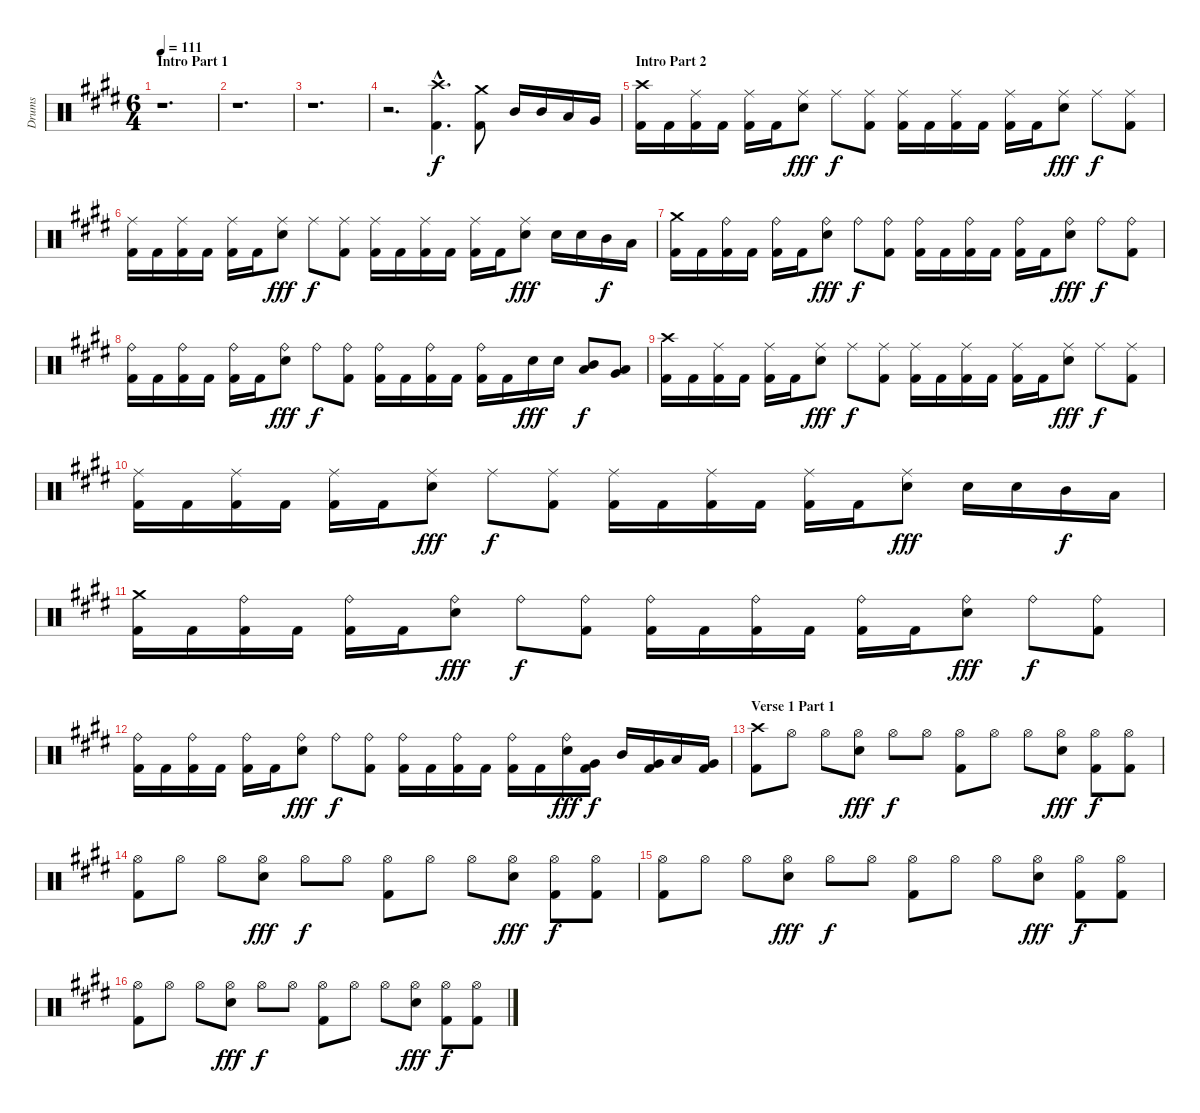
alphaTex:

\track ("Drums" "Drums") {instrument percussion}
\staff {score}
\articulation defaults
\ts (6 4)
\section ("" "Intro Part 1")
\tempo 111
\clef neutral
\ks c#minor
r.1{d dy f} |
r.1{d} |
r.1{d} |
r.2{d} ("Crash high (hit)"{hac} "Kick (hit) 2"{hac}).4{d} ("Crash medium (hit)" "Kick (hit) 2").8 "Mid Tom (hit)".16 "Mid Tom (hit)".16 "Low Tom (hit)".16 "Very Low Tom (hit)".16 |
\section ("" "Intro Part 2")
("Crash high (hit)" "Kick (hit) 2").16 "Kick (hit) 2".16 ("Ride (middle)" "Kick (hit) 2").16 "Kick (hit) 2".16 ("Ride (middle)" "Kick (hit) 2").16 "Kick (hit) 2".16 ("Ride (middle)" "Snare (hit) 2").8{dy fff} "Ride (middle)".8{dy f} ("Ride (middle)" "Kick (hit) 2").8 ("Ride (middle)" "Kick (hit) 2").16 "Kick (hit) 2".16 ("Ride (middle)" "Kick (hit) 2").16 "Kick (hit) 2".16 ("Ride (middle)" "Kick (hit) 2").16 "Kick (hit) 2".16 ("Ride (middle)" "Snare (hit) 2").8{dy fff} "Ride (middle)".8{dy f} ("Ride (middle)" "Kick (hit) 2").8 |
("Ride (middle)" "Kick (hit) 2").16 "Kick (hit) 2".16 ("Ride (middle)" "Kick (hit) 2").16 "Kick (hit) 2".16 ("Ride (middle)" "Kick (hit) 2").16 "Kick (hit) 2".16 ("Ride (middle)" "Snare (hit) 2").8{dy fff} "Ride (middle)".8{dy f} ("Ride (middle)" "Kick (hit) 2").8 ("Ride (middle)" "Kick (hit) 2").16 "Kick (hit) 2".16 ("Ride (middle)" "Kick (hit) 2").16 "Kick (hit) 2".16 ("Ride (middle)" "Kick (hit) 2").16 "Kick (hit) 2".16 ("Ride (middle)" "Snare (hit) 2").8{dy fff} "Snare (hit) 2".16 "Snare (hit) 2".16 "Mid Tom (hit)".16{dy f} "Low Tom (hit)".16 |
("Crash medium (hit)" "Kick (hit) 2").16 "Kick (hit) 2".16 ("Ride (bell)" "Kick (hit) 2").16 "Kick (hit) 2".16 ("Ride (bell)" "Kick (hit) 2").16 "Kick (hit) 2".16 ("Ride (bell)" "Snare (hit) 2").8{dy fff} "Ride (bell)".8{dy f} ("Ride (bell)" "Kick (hit) 2").8 ("Ride (bell)" "Kick (hit) 2").16 "Kick (hit) 2".16 ("Ride (bell)" "Kick (hit) 2").16 "Kick (hit) 2".16 ("Ride (bell)" "Kick (hit) 2").16 "Kick (hit) 2".16 ("Ride (bell)" "Snare (hit) 2").8{dy fff} "Ride (bell)".8{dy f} ("Ride (bell)" "Kick (hit) 2").8 |
("Ride (bell)" "Kick (hit) 2").16 "Kick (hit) 2".16 ("Ride (bell)" "Kick (hit) 2").16 "Kick (hit) 2".16 ("Ride (bell)" "Kick (hit) 2").16 "Kick (hit) 2".16 ("Ride (bell)" "Snare (hit) 2").8{dy fff} "Ride (bell)".8{dy f} ("Ride (bell)" "Kick (hit) 2").8 ("Ride (bell)" "Kick (hit) 2").16 "Kick (hit) 2".16 ("Ride (bell)" "Kick (hit) 2").16 "Kick (hit) 2".16 ("Ride (bell)" "Kick (hit) 2").16 "Kick (hit) 2".16 "Snare (hit) 2".16{dy fff} "Snare (hit) 2".16 ("Mid Tom (hit)" "Low Tom (hit)").8{dy f} ("Low Tom (hit)" "Very Low Tom (hit)").8 |
("Crash high (hit)" "Kick (hit) 2").16 "Kick (hit) 2".16 ("Ride (middle)" "Kick (hit) 2").16 "Kick (hit) 2".16 ("Ride (middle)" "Kick (hit) 2").16 "Kick (hit) 2".16 ("Ride (middle)" "Snare (hit) 2").8{dy fff} "Ride (middle)".8{dy f} ("Ride (middle)" "Kick (hit) 2").8 ("Ride (middle)" "Kick (hit) 2").16 "Kick (hit) 2".16 ("Ride (middle)" "Kick (hit) 2").16 "Kick (hit) 2".16 ("Ride (middle)" "Kick (hit) 2").16 "Kick (hit) 2".16 ("Ride (middle)" "Snare (hit) 2").8{dy fff} "Ride (middle)".8{dy f} ("Ride (middle)" "Kick (hit) 2").8 |
("Ride (middle)" "Kick (hit) 2").16 "Kick (hit) 2".16 ("Ride (middle)" "Kick (hit) 2").16 "Kick (hit) 2".16 ("Ride (middle)" "Kick (hit) 2").16 "Kick (hit) 2".16 ("Ride (middle)" "Snare (hit) 2").8{dy fff} "Ride (middle)".8{dy f} ("Ride (middle)" "Kick (hit) 2").8 ("Ride (middle)" "Kick (hit) 2").16 "Kick (hit) 2".16 ("Ride (middle)" "Kick (hit) 2").16 "Kick (hit) 2".16 ("Ride (middle)" "Kick (hit) 2").16 "Kick (hit) 2".16 ("Ride (middle)" "Snare (hit) 2").8{dy fff} "Snare (hit) 2".16 "Snare (hit) 2".16 "Mid Tom (hit)".16{dy f} "Low Tom (hit)".16 |
("Crash medium (hit)" "Kick (hit) 2").16 "Kick (hit) 2".16 ("Ride (bell)" "Kick (hit) 2").16 "Kick (hit) 2".16 ("Ride (bell)" "Kick (hit) 2").16 "Kick (hit) 2".16 ("Ride (bell)" "Snare (hit) 2").8{dy fff} "Ride (bell)".8{dy f} ("Ride (bell)" "Kick (hit) 2").8 ("Ride (bell)" "Kick (hit) 2").16 "Kick (hit) 2".16 ("Ride (bell)" "Kick (hit) 2").16 "Kick (hit) 2".16 ("Ride (bell)" "Kick (hit) 2").16 "Kick (hit) 2".16 ("Ride (bell)" "Snare (hit) 2").8{dy fff} "Ride (bell)".8{dy f} ("Ride (bell)" "Kick (hit) 2").8 |
("Ride (bell)" "Kick (hit) 2").16 "Kick (hit) 2".16 ("Ride (bell)" "Kick (hit) 2").16 "Kick (hit) 2".16 ("Ride (bell)" "Kick (hit) 2").16 "Kick (hit) 2".16 ("Ride (bell)" "Snare (hit) 2").8{dy fff} "Ride (bell)".8{dy f} ("Ride (bell)" "Kick (hit) 2").8 ("Ride (bell)" "Kick (hit) 2").16 "Kick (hit) 2".16 ("Ride (bell)" "Kick (hit) 2").16 "Kick (hit) 2".16 ("Ride (bell)" "Kick (hit) 2").16 "Kick (hit) 2".16 ("Ride (bell)" "Snare (hit) 2").16{dy fff} ("Very Low Tom (hit)" "Kick (hit) 2").16{dy f} "Mid Tom (hit)".16 ("Very Low Tom (hit)" "Kick (hit) 2").16 "Low Tom (hit)".16 ("Very Low Tom (hit)" "Kick (hit) 2").16 |
\section ("" "Verse 1 Part 1")
("Crash high (hit)" "Kick (hit) 2").8 "Hi-Hat (open)".8 "Hi-Hat (open)".8 ("Hi-Hat (open)" "Snare (hit) 2").8{dy fff} "Hi-Hat (open)".8{dy f} "Hi-Hat (open)".8 ("Hi-Hat (open)" "Kick (hit) 2").8 "Hi-Hat (open)".8 "Hi-Hat (open)".8 ("Hi-Hat (open)" "Snare (hit) 2").8{dy fff} ("Hi-Hat (open)" "Kick (hit) 2").8{dy f} ("Hi-Hat (open)" "Kick (hit) 2").8 |
("Hi-Hat (open)" "Kick (hit) 2").8 "Hi-Hat (open)".8 "Hi-Hat (open)".8 ("Hi-Hat (open)" "Snare (hit) 2").8{dy fff} "Hi-Hat (open)".8{dy f} "Hi-Hat (open)".8 ("Hi-Hat (open)" "Kick (hit) 2").8 "Hi-Hat (open)".8 "Hi-Hat (open)".8 ("Hi-Hat (open)" "Snare (hit) 2").8{dy fff} ("Hi-Hat (open)" "Kick (hit) 2").8{dy f} ("Hi-Hat (open)" "Kick (hit) 2").8 |
("Hi-Hat (open)" "Kick (hit) 2").8 "Hi-Hat (open)".8 "Hi-Hat (open)".8 ("Hi-Hat (open)" "Snare (hit) 2").8{dy fff} "Hi-Hat (open)".8{dy f} "Hi-Hat (open)".8 ("Hi-Hat (open)" "Kick (hit) 2").8 "Hi-Hat (open)".8 "Hi-Hat (open)".8 ("Hi-Hat (open)" "Snare (hit) 2").8{dy fff} ("Hi-Hat (open)" "Kick (hit) 2").8{dy f} ("Hi-Hat (open)" "Kick (hit) 2").8 |
("Hi-Hat (open)" "Kick (hit) 2").8 "Hi-Hat (open)".8 "Hi-Hat (open)".8 ("Hi-Hat (open)" "Snare (hit) 2").8{dy fff} "Hi-Hat (open)".8{dy f} "Hi-Hat (open)".8 ("Hi-Hat (open)" "Kick (hit) 2").8 "Hi-Hat (open)".8 "Hi-Hat (open)".8 ("Hi-Hat (open)" "Snare (hit) 2").8{dy fff} ("Hi-Hat (open)" "Kick (hit) 2").8{dy f} ("Hi-Hat (open)" "Kick (hit) 2").8
